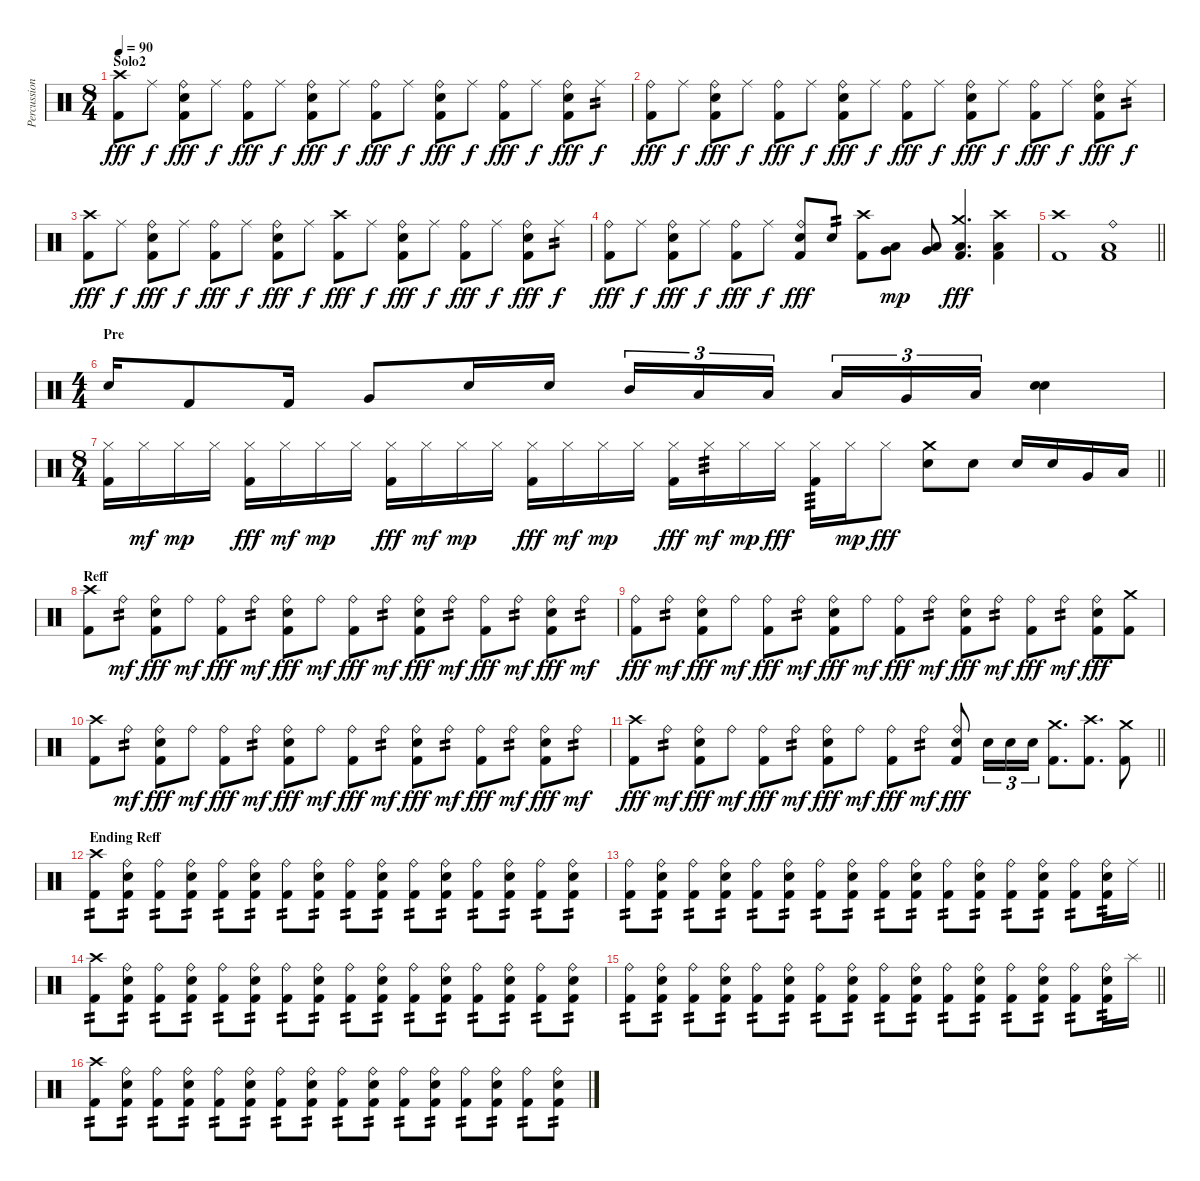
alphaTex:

\track ("Percussion" "Percussion") {instrument percussion}
\staff {score}
\articulation defaults
\ts (8 4)
\section ("" "Solo2")
\tempo 90
\clef neutral
\ks c
("Crash high (hit)" "Kick (hit) 2").8{dy fff} "Ride (middle)".8{dy f} ("Ride (bell)" "Electric Snare (hit)" "Kick (hit) 2").8{dy fff} "Ride (middle)".8{dy f} ("Ride (bell)" "Kick (hit) 2").8{dy fff} "Ride (middle)".8{dy f} ("Ride (bell)" "Electric Snare (hit)" "Kick (hit) 2").8{dy fff} "Ride (middle)".8{dy f} ("Ride (bell)" "Kick (hit) 2").8{dy fff} "Ride (middle)".8{dy f} ("Ride (bell)" "Electric Snare (hit)" "Kick (hit) 2").8{dy fff} "Ride (middle)".8{dy f} ("Ride (bell)" "Kick (hit) 2").8{dy fff} "Ride (middle)".8{dy f} ("Ride (bell)" "Electric Snare (hit)" "Kick (hit) 2").8{dy fff} "Ride (middle)".8{tp 2 dy f} |
("Ride (bell)" "Kick (hit) 2").8{dy fff} "Ride (middle)".8{dy f} ("Ride (bell)" "Electric Snare (hit)" "Kick (hit) 2").8{dy fff} "Ride (middle)".8{dy f} ("Ride (bell)" "Kick (hit) 2").8{dy fff} "Ride (middle)".8{dy f} ("Ride (bell)" "Electric Snare (hit)" "Kick (hit) 2").8{dy fff} "Ride (middle)".8{dy f} ("Ride (bell)" "Kick (hit) 2").8{dy fff} "Ride (middle)".8{dy f} ("Ride (bell)" "Electric Snare (hit)" "Kick (hit) 2").8{dy fff} "Ride (middle)".8{dy f} ("Ride (bell)" "Kick (hit) 2").8{dy fff} "Ride (middle)".8{dy f} ("Ride (bell)" "Electric Snare (hit)" "Kick (hit) 2").8{dy fff} "Ride (middle)".8{tp 2 dy f} |
("Crash high (hit)" "Kick (hit) 2").8{dy fff} "Ride (middle)".8{dy f} ("Ride (bell)" "Electric Snare (hit)" "Kick (hit) 2").8{dy fff} "Ride (middle)".8{dy f} ("Ride (bell)" "Kick (hit) 2").8{dy fff} "Ride (middle)".8{dy f} ("Ride (bell)" "Electric Snare (hit)" "Kick (hit) 2").8{dy fff} "Ride (middle)".8{dy f} ("Crash high (hit)" "Kick (hit) 2").8{dy fff} "Ride (middle)".8{dy f} ("Ride (bell)" "Electric Snare (hit)" "Kick (hit) 2").8{dy fff} "Ride (middle)".8{dy f} ("Ride (bell)" "Kick (hit) 2").8{dy fff} "Ride (middle)".8{dy f} ("Ride (bell)" "Electric Snare (hit)" "Kick (hit) 2").8{dy fff} "Ride (middle)".8{tp 2 dy f} |
("Ride (bell)" "Kick (hit) 2").8{dy fff} "Ride (middle)".8{dy f} ("Ride (bell)" "Electric Snare (hit)" "Kick (hit) 2").8{dy fff} "Ride (middle)".8{dy f} ("Ride (bell)" "Kick (hit) 2").8{dy fff} "Ride (middle)".8{dy f} ("Ride (bell)" "Electric Snare (hit)" "Kick (hit) 2").8{dy fff} "Electric Snare (hit)".8{tp 2} ("Crash high (hit)" "Kick (hit) 2").8 ("Low Tom (hit)" "Very Low Tom (hit)").8{dy mp} ("Low Tom (hit)" "Very Low Tom (hit)").8 ("Crash medium (hit)" "Low Floor Tom (hit)" "Kick (hit) 2").4{d dy fff} ("Crash high (hit)" "Low Floor Tom (hit)" "Kick (hit) 2").4 |
\barLineRight lightlight
("Crash high (hit)" "Kick (hit) 2").1 ("Ride (bell)" "Low Floor Tom (hit)" "Kick (hit) 2").1 |
\ts (4 4)
\section ("" "Pre")
"Electric Snare (hit)".16 "Kick (hit) 2".8 "Kick (hit) 2".16 "Very Low Tom (hit)".8 "Electric Snare (hit)".16 "Electric Snare (hit)".16 "Mid Tom (hit)".16{tu (3 2)} "Low Tom (hit)".16{tu (3 2)} "Low Floor Tom (hit)".16{tu (3 2) beam splitsecondary} "Low Tom (hit)".16{tu (3 2)} "Very Low Tom (hit)".16{tu (3 2)} "Low Floor Tom (hit)".16{tu (3 2)} ("Electric Snare (hit)" "Electric Snare (hit)").4 |
\ts (8 4)
\barLineRight lightlight
("Hi-Hat (closed)" "Kick (hit) 2").16 "Hi-Hat (closed)".16{dy mf} "Hi-Hat (closed)".16{dy mp} "Hi-Hat (closed)".16 ("Hi-Hat (closed)" "Kick (hit) 2").16{dy fff} "Hi-Hat (closed)".16{dy mf} "Hi-Hat (closed)".16{dy mp} "Hi-Hat (closed)".16 ("Hi-Hat (closed)" "Kick (hit) 2").16{dy fff} "Hi-Hat (closed)".16{dy mf} "Hi-Hat (closed)".16{dy mp} "Hi-Hat (closed)".16 ("Hi-Hat (closed)" "Kick (hit) 2").16{dy fff} "Hi-Hat (closed)".16{dy mf} "Hi-Hat (closed)".16{dy mp} "Hi-Hat (closed)".16 ("Hi-Hat (closed)" "Kick (hit) 2").16{dy fff} "Hi-Hat (closed)".16{tp 3 dy mf} "Hi-Hat (closed)".16{dy mp} "Hi-Hat (closed)".16{dy fff} ("Hi-Hat (closed)" "Kick (hit) 2").16{tp 3} "Hi-Hat (closed)".16{dy mp} "Hi-Hat (closed)".8{dy fff} ("Crash medium (hit)" "Electric Snare (hit)").8 "Electric Snare (hit)".8 "Electric Snare (hit)".16 "Electric Snare (hit)".16 "Very Low Tom (hit)".16 "Low Floor Tom (hit)".16 |
\section ("" "Reff")
("Crash high (hit)" "Kick (hit) 2").8 "Ride (bell)".8{tp 2 dy mf} ("Ride (bell)" "Electric Snare (hit)" "Kick (hit) 2").8{dy fff} "Ride (bell)".8{dy mf} ("Ride (bell)" "Kick (hit) 2").8{dy fff} "Ride (bell)".8{tp 2 dy mf} ("Ride (bell)" "Electric Snare (hit)" "Kick (hit) 2").8{dy fff} "Ride (bell)".8{dy mf} ("Ride (bell)" "Kick (hit) 2").8{dy fff} "Ride (bell)".8{tp 2 dy mf} ("Ride (bell)" "Electric Snare (hit)" "Kick (hit) 2").8{dy fff} "Ride (bell)".8{tp 2 dy mf} ("Ride (bell)" "Kick (hit) 2").8{dy fff} "Ride (bell)".8{tp 2 dy mf} ("Ride (bell)" "Electric Snare (hit)" "Kick (hit) 2").8{dy fff} "Ride (bell)".8{tp 2 dy mf} |
("Ride (bell)" "Kick (hit) 2").8{dy fff} "Ride (bell)".8{tp 2 dy mf} ("Ride (bell)" "Electric Snare (hit)" "Kick (hit) 2").8{dy fff} "Ride (bell)".8{dy mf} ("Ride (bell)" "Kick (hit) 2").8{dy fff} "Ride (bell)".8{tp 2 dy mf} ("Ride (bell)" "Electric Snare (hit)" "Kick (hit) 2").8{dy fff} "Ride (bell)".8{dy mf} ("Ride (bell)" "Kick (hit) 2").8{dy fff} "Ride (bell)".8{tp 2 dy mf} ("Ride (bell)" "Electric Snare (hit)" "Kick (hit) 2").8{dy fff} "Ride (bell)".8{tp 2 dy mf} ("Ride (bell)" "Kick (hit) 2").8{dy fff} "Ride (bell)".8{tp 2 dy mf} ("Ride (bell)" "Electric Snare (hit)" "Kick (hit) 2").8{dy fff} ("Crash medium (hit)" "Kick (hit) 2").8 |
("Crash high (hit)" "Kick (hit) 2").8 "Ride (bell)".8{tp 2 dy mf} ("Ride (bell)" "Electric Snare (hit)" "Kick (hit) 2").8{dy fff} "Ride (bell)".8{dy mf} ("Ride (bell)" "Kick (hit) 2").8{dy fff} "Ride (bell)".8{tp 2 dy mf} ("Ride (bell)" "Electric Snare (hit)" "Kick (hit) 2").8{dy fff} "Ride (bell)".8{dy mf} ("Ride (bell)" "Kick (hit) 2").8{dy fff} "Ride (bell)".8{tp 2 dy mf} ("Ride (bell)" "Electric Snare (hit)" "Kick (hit) 2").8{dy fff} "Ride (bell)".8{tp 2 dy mf} ("Ride (bell)" "Kick (hit) 2").8{dy fff} "Ride (bell)".8{tp 2 dy mf} ("Ride (bell)" "Electric Snare (hit)" "Kick (hit) 2").8{dy fff} "Ride (bell)".8{tp 2 dy mf} |
\barLineRight lightlight
("Crash high (hit)" "Kick (hit) 2").8{dy fff} "Ride (bell)".8{tp 2 dy mf} ("Ride (bell)" "Electric Snare (hit)" "Kick (hit) 2").8{dy fff} "Ride (bell)".8{dy mf} ("Ride (bell)" "Kick (hit) 2").8{dy fff} "Ride (bell)".8{tp 2 dy mf} ("Ride (bell)" "Electric Snare (hit)" "Kick (hit) 2").8{dy fff} "Ride (bell)".8{dy mf} ("Ride (bell)" "Kick (hit) 2").8{dy fff} "Ride (bell)".8{tp 2 dy mf} ("Ride (bell)" "Electric Snare (hit)" "Kick (hit) 2").8{dy fff} "Electric Snare (hit)".16{tu (3 2)} "Electric Snare (hit)".16{tu (3 2)} "Electric Snare (hit)".16{tu (3 2)} ("Crash medium (hit)" "Kick (hit) 2").8{d} ("Crash high (hit)" "Kick (hit) 2").8{d} ("Crash medium (hit)" "Kick (hit) 2").8 |
\section ("" "Ending Reff")
("Crash high (hit)" "Kick (hit) 2").8{tp 2} ("Ride (bell)" "Electric Snare (hit)" "Kick (hit) 2").8{tp 2} ("Ride (bell)" "Kick (hit) 2").8{tp 2} ("Ride (bell)" "Electric Snare (hit)" "Kick (hit) 2").8{tp 2} ("Ride (bell)" "Kick (hit) 2").8{tp 2} ("Ride (bell)" "Electric Snare (hit)" "Kick (hit) 2").8{tp 2} ("Ride (bell)" "Kick (hit) 2").8{tp 2} ("Ride (bell)" "Electric Snare (hit)" "Kick (hit) 2").8{tp 2} ("Ride (bell)" "Kick (hit) 2").8{tp 2} ("Ride (bell)" "Electric Snare (hit)" "Kick (hit) 2").8{tp 2} ("Ride (bell)" "Kick (hit) 2").8{tp 2} ("Ride (bell)" "Electric Snare (hit)" "Kick (hit) 2").8{tp 2} ("Ride (bell)" "Kick (hit) 2").8{tp 2} ("Ride (bell)" "Electric Snare (hit)" "Kick (hit) 2").8{tp 2} ("Ride (bell)" "Kick (hit) 2").8{tp 2} ("Ride (bell)" "Electric Snare (hit)" "Kick (hit) 2").8{tp 2} |
\barLineRight lightlight
("Ride (bell)" "Kick (hit) 2").8{tp 2} ("Ride (bell)" "Electric Snare (hit)" "Kick (hit) 2").8{tp 2} ("Ride (bell)" "Kick (hit) 2").8{tp 2} ("Ride (bell)" "Electric Snare (hit)" "Kick (hit) 2").8{tp 2} ("Ride (bell)" "Kick (hit) 2").8{tp 2} ("Ride (bell)" "Electric Snare (hit)" "Kick (hit) 2").8{tp 2} ("Ride (bell)" "Kick (hit) 2").8{tp 2} ("Ride (bell)" "Electric Snare (hit)" "Kick (hit) 2").8{tp 2} ("Ride (bell)" "Kick (hit) 2").8{tp 2} ("Ride (bell)" "Electric Snare (hit)" "Kick (hit) 2").8{tp 2} ("Ride (bell)" "Kick (hit) 2").8{tp 2} ("Ride (bell)" "Electric Snare (hit)" "Kick (hit) 2").8{tp 2} ("Ride (bell)" "Kick (hit) 2").8{tp 2} ("Ride (bell)" "Electric Snare (hit)" "Kick (hit) 2").8{tp 2} ("Ride (bell)" "Kick (hit) 2").8{tp 2} ("Ride (bell)" "Electric Snare (hit)" "Kick (hit) 2").16{tp 2} "Ride (middle)".16 |
("Crash high (hit)" "Kick (hit) 2").8{tp 2} ("Ride (bell)" "Electric Snare (hit)" "Kick (hit) 2").8{tp 2} ("Ride (bell)" "Kick (hit) 2").8{tp 2} ("Ride (bell)" "Electric Snare (hit)" "Kick (hit) 2").8{tp 2} ("Ride (bell)" "Kick (hit) 2").8{tp 2} ("Ride (bell)" "Electric Snare (hit)" "Kick (hit) 2").8{tp 2} ("Ride (bell)" "Kick (hit) 2").8{tp 2} ("Ride (bell)" "Electric Snare (hit)" "Kick (hit) 2").8{tp 2} ("Ride (bell)" "Kick (hit) 2").8{tp 2} ("Ride (bell)" "Electric Snare (hit)" "Kick (hit) 2").8{tp 2} ("Ride (bell)" "Kick (hit) 2").8{tp 2} ("Ride (bell)" "Electric Snare (hit)" "Kick (hit) 2").8{tp 2} ("Ride (bell)" "Kick (hit) 2").8{tp 2} ("Ride (bell)" "Electric Snare (hit)" "Kick (hit) 2").8{tp 2} ("Ride (bell)" "Kick (hit) 2").8{tp 2} ("Ride (bell)" "Electric Snare (hit)" "Kick (hit) 2").8{tp 2} |
\barLineRight lightlight
("Ride (bell)" "Kick (hit) 2").8{tp 2} ("Ride (bell)" "Electric Snare (hit)" "Kick (hit) 2").8{tp 2} ("Ride (bell)" "Kick (hit) 2").8{tp 2} ("Ride (bell)" "Electric Snare (hit)" "Kick (hit) 2").8{tp 2} ("Ride (bell)" "Kick (hit) 2").8{tp 2} ("Ride (bell)" "Electric Snare (hit)" "Kick (hit) 2").8{tp 2} ("Ride (bell)" "Kick (hit) 2").8{tp 2} ("Ride (bell)" "Electric Snare (hit)" "Kick (hit) 2").8{tp 2} ("Ride (bell)" "Kick (hit) 2").8{tp 2} ("Ride (bell)" "Electric Snare (hit)" "Kick (hit) 2").8{tp 2} ("Ride (bell)" "Kick (hit) 2").8{tp 2} ("Ride (bell)" "Electric Snare (hit)" "Kick (hit) 2").8{tp 2} ("Ride (bell)" "Kick (hit) 2").8{tp 2} ("Ride (bell)" "Electric Snare (hit)" "Kick (hit) 2").8{tp 2} ("Ride (bell)" "Kick (hit) 2").8{tp 2} ("Ride (bell)" "Electric Snare (hit)" "Kick (hit) 2").16{tp 2} "Splash (hit)".16 |
("Crash high (hit)" "Kick (hit) 2").8{tp 2} ("Ride (bell)" "Electric Snare (hit)" "Kick (hit) 2").8{tp 2} ("Ride (bell)" "Kick (hit) 2").8{tp 2} ("Ride (bell)" "Electric Snare (hit)" "Kick (hit) 2").8{tp 2} ("Ride (bell)" "Kick (hit) 2").8{tp 2} ("Ride (bell)" "Electric Snare (hit)" "Kick (hit) 2").8{tp 2} ("Ride (bell)" "Kick (hit) 2").8{tp 2} ("Ride (bell)" "Electric Snare (hit)" "Kick (hit) 2").8{tp 2} ("Ride (bell)" "Kick (hit) 2").8{tp 2} ("Ride (bell)" "Electric Snare (hit)" "Kick (hit) 2").8{tp 2} ("Ride (bell)" "Kick (hit) 2").8{tp 2} ("Ride (bell)" "Electric Snare (hit)" "Kick (hit) 2").8{tp 2} ("Ride (bell)" "Kick (hit) 2").8{tp 2} ("Ride (bell)" "Electric Snare (hit)" "Kick (hit) 2").8{tp 2} ("Ride (bell)" "Kick (hit) 2").8{tp 2} ("Ride (bell)" "Electric Snare (hit)" "Kick (hit) 2").8{tp 2}
